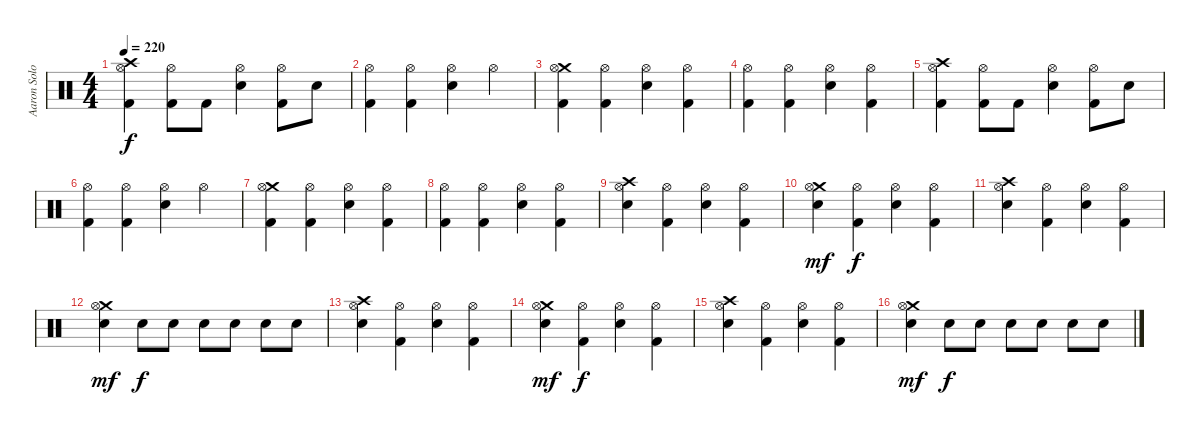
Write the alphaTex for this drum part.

\track ("Aaron Solowoniuk" "Aaron Solo") {instrument percussion}
\staff {score}
\articulation defaults
\ts (4 4)
\tempo 220
\clef neutral
\ks c
("Crash high (hit)" "Hi-Hat (open)" "Kick (hit) 2").4{dy f} ("Hi-Hat (open)" "Kick (hit) 2").8 "Kick (hit) 2".8 ("Hi-Hat (open)" "Snare (hit) 2").4 ("Hi-Hat (open)" "Kick (hit) 2").8 "Snare (hit) 2".8 |
("Hi-Hat (open)" "Kick (hit) 2").4 ("Hi-Hat (open)" "Kick (hit) 2").4 ("Hi-Hat (open)" "Snare (hit) 2").4 "Hi-Hat (open)".4 |
("Crash medium (hit)" "Hi-Hat (open)" "Kick (hit) 2").4 ("Hi-Hat (open)" "Kick (hit) 2").4 ("Hi-Hat (open)" "Snare (hit) 2").4 ("Hi-Hat (open)" "Kick (hit) 2").4 |
("Hi-Hat (open)" "Kick (hit) 2").4 ("Hi-Hat (open)" "Kick (hit) 2").4 ("Hi-Hat (open)" "Snare (hit) 2").4 ("Hi-Hat (open)" "Kick (hit) 2").4 |
("Crash high (hit)" "Hi-Hat (open)" "Kick (hit) 2").4 ("Hi-Hat (open)" "Kick (hit) 2").8 "Kick (hit) 2".8 ("Hi-Hat (open)" "Snare (hit) 2").4 ("Hi-Hat (open)" "Kick (hit) 2").8 "Snare (hit) 2".8 |
("Hi-Hat (open)" "Kick (hit) 2").4 ("Hi-Hat (open)" "Kick (hit) 2").4 ("Hi-Hat (open)" "Snare (hit) 2").4 "Hi-Hat (open)".4 |
("Crash medium (hit)" "Hi-Hat (open)" "Kick (hit) 2").4 ("Hi-Hat (open)" "Kick (hit) 2").4 ("Hi-Hat (open)" "Snare (hit) 2").4 ("Hi-Hat (open)" "Kick (hit) 2").4 |
("Hi-Hat (open)" "Kick (hit) 2").4 ("Hi-Hat (open)" "Kick (hit) 2").4 ("Hi-Hat (open)" "Snare (hit) 2").4 ("Hi-Hat (open)" "Kick (hit) 2").4 |
("Crash high (hit)" "Hi-Hat (open)" "Snare (hit) 2").4 ("Hi-Hat (open)" "Kick (hit) 2").4 ("Hi-Hat (open)" "Snare (hit) 2").4 ("Hi-Hat (open)" "Kick (hit) 2").4 |
("Crash medium (hit)" "Hi-Hat (open)" "Snare (hit) 2").4{dy mf} ("Hi-Hat (open)" "Kick (hit) 2").4{dy f} ("Hi-Hat (open)" "Snare (hit) 2").4 ("Hi-Hat (open)" "Kick (hit) 2").4 |
("Crash high (hit)" "Hi-Hat (open)" "Snare (hit) 2").4 ("Hi-Hat (open)" "Kick (hit) 2").4 ("Hi-Hat (open)" "Snare (hit) 2").4 ("Hi-Hat (open)" "Kick (hit) 2").4 |
("Crash medium (hit)" "Hi-Hat (open)" "Snare (hit) 2").4{dy mf} "Snare (hit) 2".8{dy f} "Snare (hit) 2".8 "Snare (hit) 2".8 "Snare (hit) 2".8 "Snare (hit) 2".8 "Snare (hit) 2".8 |
("Crash high (hit)" "Hi-Hat (open)" "Snare (hit) 2").4 ("Hi-Hat (open)" "Kick (hit) 2").4 ("Hi-Hat (open)" "Snare (hit) 2").4 ("Hi-Hat (open)" "Kick (hit) 2").4 |
("Crash medium (hit)" "Hi-Hat (open)" "Snare (hit) 2").4{dy mf} ("Hi-Hat (open)" "Kick (hit) 2").4{dy f} ("Hi-Hat (open)" "Snare (hit) 2").4 ("Hi-Hat (open)" "Kick (hit) 2").4 |
("Crash high (hit)" "Hi-Hat (open)" "Snare (hit) 2").4 ("Hi-Hat (open)" "Kick (hit) 2").4 ("Hi-Hat (open)" "Snare (hit) 2").4 ("Hi-Hat (open)" "Kick (hit) 2").4 |
("Crash medium (hit)" "Hi-Hat (open)" "Snare (hit) 2").4{dy mf} "Snare (hit) 2".8{dy f} "Snare (hit) 2".8 "Snare (hit) 2".8 "Snare (hit) 2".8 "Snare (hit) 2".8 "Snare (hit) 2".8
